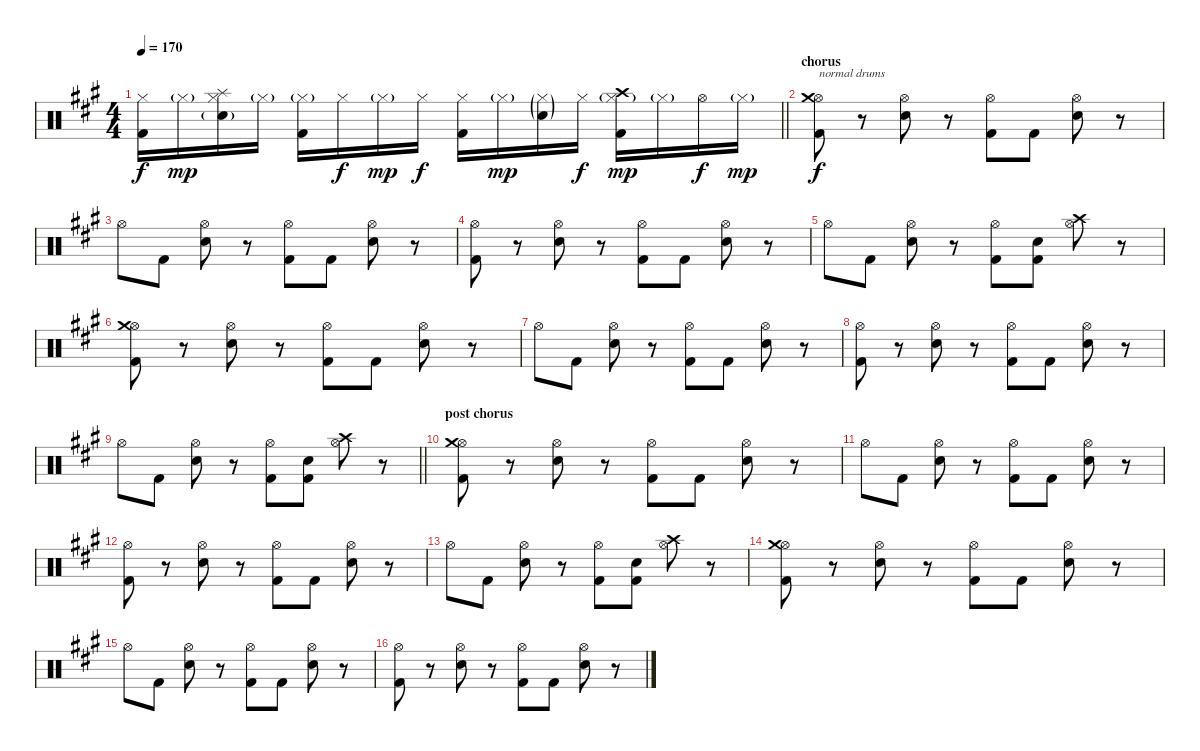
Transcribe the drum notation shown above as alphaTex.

\track "" {instrument percussion}
\staff {score}
\articulation defaults
\ts (4 4)
\tempo 170
\clef neutral
\barLineRight lightlight
\ks f#minor
("Kick (hit) 2" "Hi-Hat (closed)").16{dy f} "Hi-Hat (closed)"{g}.16{dy mp} ("Electric Snare (hit)"{g} "Hi-Hat (closed)" "Splash (hit)").16 "Hi-Hat (closed)"{g}.16 ("Kick (hit) 2" "Hi-Hat (closed)"{g}).16 "Hi-Hat (closed)".16{dy f} "Hi-Hat (closed)"{g}.16{dy mp} "Hi-Hat (closed)".16{dy f} ("Kick (hit) 2" "Hi-Hat (closed)").16 "Hi-Hat (closed)"{g}.16{dy mp} ("Electric Snare (hit)"{g} "Hi-Hat (closed)"{g}).16 "Hi-Hat (closed)".16{dy f} ("Kick (hit) 2" "Hi-Hat (closed)"{g} "Crash high (hit)").16{dy mp} "Hi-Hat (closed)"{g}.16 "Hi-Hat (open)".16{dy f} "Hi-Hat (closed)"{g}.16{dy mp} |
\section ("" "chorus")
("Kick (hit) 2" "Hi-Hat (open)" "Crash medium (hit)").8{txt "normal drums" dy f} r.8 ("Electric Snare (hit)" "Hi-Hat (open)").8 r.8 ("Kick (hit) 2" "Hi-Hat (open)").8 "Kick (hit) 2".8 ("Electric Snare (hit)" "Hi-Hat (open)").8 r.8 |
"Hi-Hat (open)".8 "Kick (hit) 2".8 ("Electric Snare (hit)" "Hi-Hat (open)").8 r.8 ("Kick (hit) 2" "Hi-Hat (open)").8 "Kick (hit) 2".8 ("Electric Snare (hit)" "Hi-Hat (open)").8 r.8 |
("Kick (hit) 2" "Hi-Hat (open)").8 r.8 ("Electric Snare (hit)" "Hi-Hat (open)").8 r.8 ("Kick (hit) 2" "Hi-Hat (open)").8 "Kick (hit) 2".8 ("Electric Snare (hit)" "Hi-Hat (open)").8 r.8 |
"Hi-Hat (open)".8 "Kick (hit) 2".8 ("Electric Snare (hit)" "Hi-Hat (open)").8 r.8 ("Kick (hit) 2" "Hi-Hat (open)").8 ("Kick (hit) 2" "Electric Snare (hit)").8 ("Hi-Hat (open)" "Crash high (hit)").8 r.8 |
("Kick (hit) 2" "Hi-Hat (open)" "Crash medium (hit)").8 r.8 ("Electric Snare (hit)" "Hi-Hat (open)").8 r.8 ("Kick (hit) 2" "Hi-Hat (open)").8 "Kick (hit) 2".8 ("Electric Snare (hit)" "Hi-Hat (open)").8 r.8 |
"Hi-Hat (open)".8 "Kick (hit) 2".8 ("Electric Snare (hit)" "Hi-Hat (open)").8 r.8 ("Kick (hit) 2" "Hi-Hat (open)").8 "Kick (hit) 2".8 ("Electric Snare (hit)" "Hi-Hat (open)").8 r.8 |
("Kick (hit) 2" "Hi-Hat (open)").8 r.8 ("Electric Snare (hit)" "Hi-Hat (open)").8 r.8 ("Kick (hit) 2" "Hi-Hat (open)").8 "Kick (hit) 2".8 ("Electric Snare (hit)" "Hi-Hat (open)").8 r.8 |
\barLineRight lightlight "Hi-Hat (open)".8 "Kick (hit) 2".8
("Electric Snare (hit)" "Hi-Hat (open)").8 r.8 ("Kick (hit) 2" "Hi-Hat (open)").8 ("Kick (hit) 2" "Electric Snare (hit)").8 ("Hi-Hat (open)" "Crash high (hit)").8 r.8 |
\section ("" "post chorus")
("Kick (hit) 2" "Hi-Hat (open)" "Crash medium (hit)").8 r.8 ("Electric Snare (hit)" "Hi-Hat (open)").8 r.8 ("Kick (hit) 2" "Hi-Hat (open)").8 "Kick (hit) 2".8 ("Electric Snare (hit)" "Hi-Hat (open)").8 r.8 |
"Hi-Hat (open)".8 "Kick (hit) 2".8 ("Electric Snare (hit)" "Hi-Hat (open)").8 r.8 ("Kick (hit) 2" "Hi-Hat (open)").8 "Kick (hit) 2".8 ("Electric Snare (hit)" "Hi-Hat (open)").8 r.8 |
("Kick (hit) 2" "Hi-Hat (open)").8 r.8 ("Electric Snare (hit)" "Hi-Hat (open)").8 r.8 ("Kick (hit) 2" "Hi-Hat (open)").8 "Kick (hit) 2".8 ("Electric Snare (hit)" "Hi-Hat (open)").8 r.8 |
"Hi-Hat (open)".8 "Kick (hit) 2".8 ("Electric Snare (hit)" "Hi-Hat (open)").8 r.8 ("Kick (hit) 2" "Hi-Hat (open)").8 ("Kick (hit) 2" "Electric Snare (hit)").8 ("Hi-Hat (open)" "Crash high (hit)").8 r.8 |
("Kick (hit) 2" "Hi-Hat (open)" "Crash medium (hit)").8 r.8 ("Electric Snare (hit)" "Hi-Hat (open)").8 r.8 ("Kick (hit) 2" "Hi-Hat (open)").8 "Kick (hit) 2".8 ("Electric Snare (hit)" "Hi-Hat (open)").8 r.8 |
"Hi-Hat (open)".8 "Kick (hit) 2".8 ("Electric Snare (hit)" "Hi-Hat (open)").8 r.8 ("Kick (hit) 2" "Hi-Hat (open)").8 "Kick (hit) 2".8 ("Electric Snare (hit)" "Hi-Hat (open)").8 r.8 |
("Kick (hit) 2" "Hi-Hat (open)").8 r.8 ("Electric Snare (hit)" "Hi-Hat (open)").8 r.8 ("Kick (hit) 2" "Hi-Hat (open)").8 "Kick (hit) 2".8 ("Electric Snare (hit)" "Hi-Hat (open)").8 r.8
